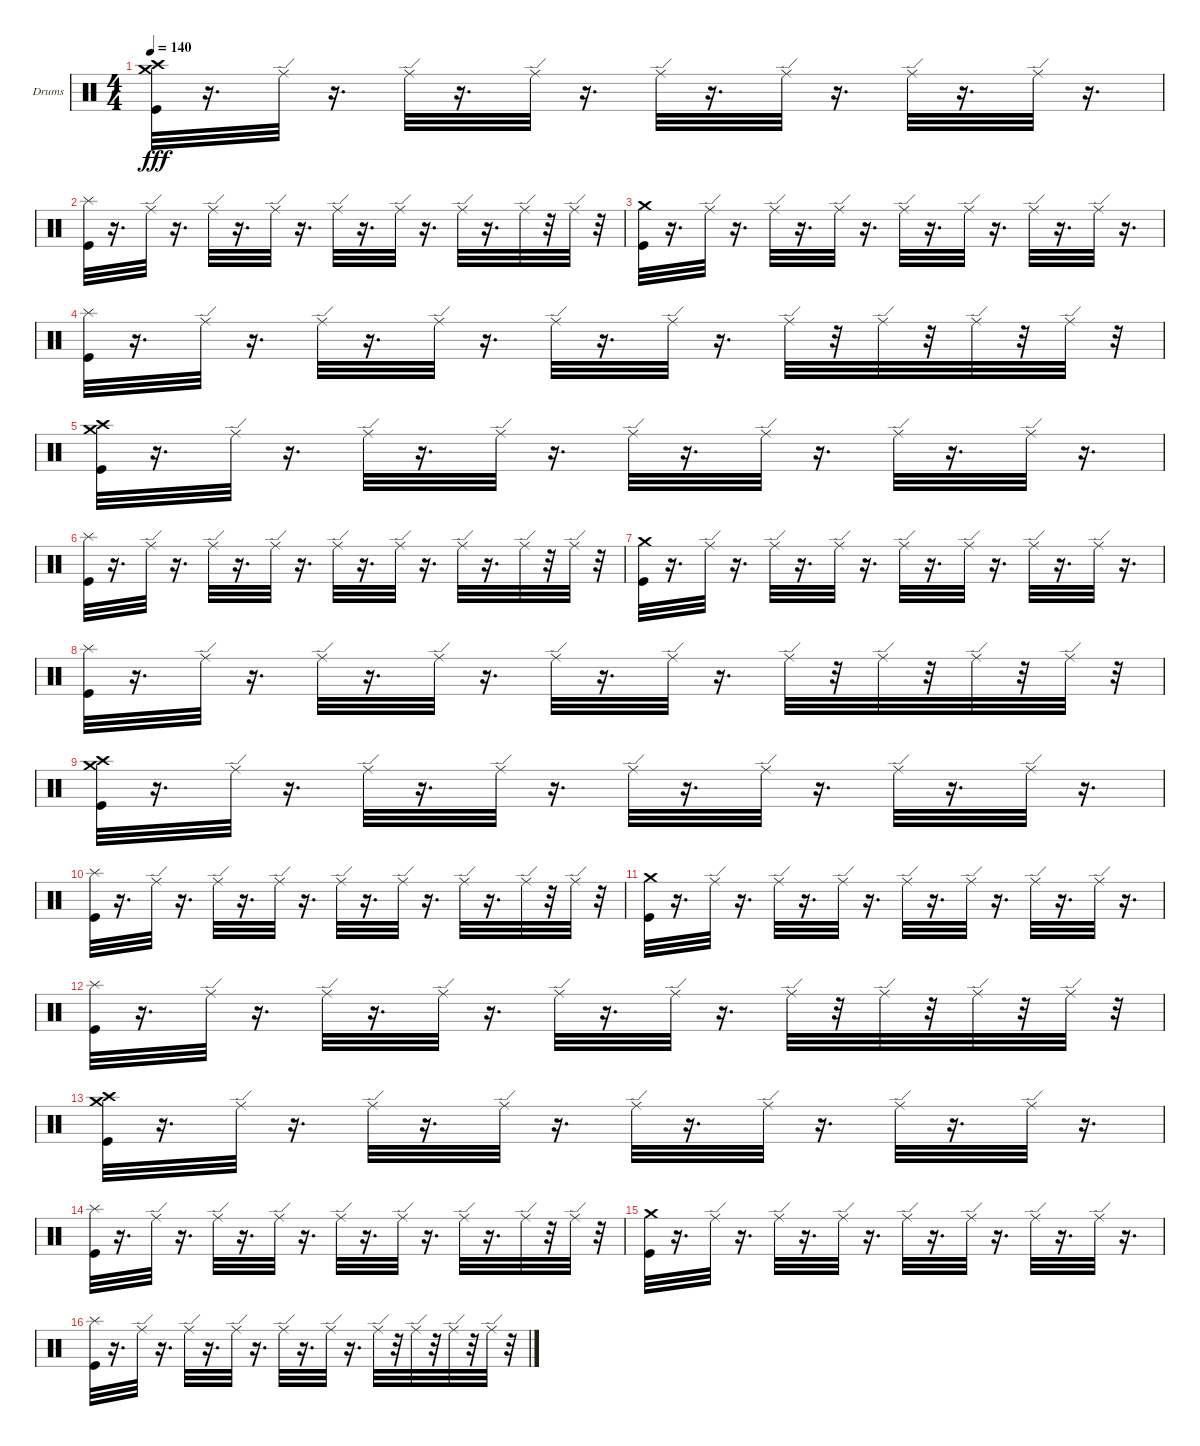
\bracketExtendMode groupsimilarinstruments
\firstSystemTrackNameOrientation horizontal
\otherSystemsTrackNameOrientation horizontal
\track ("Dave McClain" "Drums") {mute instrument percussion}
\staff {score}
\articulation defaults
\ts (4 4)
\tempo 140
\clef neutral
\ks c
("Crash high (hit)" "Crash medium (hit)" "Kick (hit)").32{dy fff} r.16{d} "Ride (edge)".32 r.16{d} "Ride (edge)".32 r.16{d} "Ride (edge)".32 r.16{d} "Ride (edge)".32 r.16{d} "Ride (edge)".32 r.16{d} "Ride (edge)".32 r.16{d} "Ride (edge)".32 r.16{d} |
("Splash (hit)" "Kick (hit)").32 r.16{d} "Ride (edge)".32 r.16{d} "Ride (edge)".32 r.16{d} "Ride (edge)".32 r.16{d} "Ride (edge)".32 r.16{d} "Ride (edge)".32 r.16{d} "Ride (edge)".32 r.16{d} "Ride (edge)".32 r.32 "Ride (edge)".32 r.32 |
("Crash medium (hit)" "Kick (hit)").32 r.16{d} "Ride (edge)".32 r.16{d} "Ride (edge)".32 r.16{d} "Ride (edge)".32 r.16{d} "Ride (edge)".32 r.16{d} "Ride (edge)".32 r.16{d} "Ride (edge)".32 r.16{d} "Ride (edge)".32 r.16{d} |
("Splash (hit)" "Kick (hit)").32 r.16{d} "Ride (edge)".32 r.16{d} "Ride (edge)".32 r.16{d} "Ride (edge)".32 r.16{d} "Ride (edge)".32 r.16{d} "Ride (edge)".32 r.16{d} "Ride (edge)".32 r.32 "Ride (edge)".32 r.32 "Ride (edge)".32 r.32 "Ride (edge)".32 r.32 |
("Crash high (hit)" "Crash medium (hit)" "Kick (hit)").32 r.16{d} "Ride (edge)".32 r.16{d} "Ride (edge)".32 r.16{d} "Ride (edge)".32 r.16{d} "Ride (edge)".32 r.16{d} "Ride (edge)".32 r.16{d} "Ride (edge)".32 r.16{d} "Ride (edge)".32 r.16{d} |
("Splash (hit)" "Kick (hit)").32 r.16{d} "Ride (edge)".32 r.16{d} "Ride (edge)".32 r.16{d} "Ride (edge)".32 r.16{d} "Ride (edge)".32 r.16{d} "Ride (edge)".32 r.16{d} "Ride (edge)".32 r.16{d} "Ride (edge)".32 r.32 "Ride (edge)".32 r.32 |
("Crash medium (hit)" "Kick (hit)").32 r.16{d} "Ride (edge)".32 r.16{d} "Ride (edge)".32 r.16{d} "Ride (edge)".32 r.16{d} "Ride (edge)".32 r.16{d} "Ride (edge)".32 r.16{d} "Ride (edge)".32 r.16{d} "Ride (edge)".32 r.16{d} |
("Splash (hit)" "Kick (hit)").32 r.16{d} "Ride (edge)".32 r.16{d} "Ride (edge)".32 r.16{d} "Ride (edge)".32 r.16{d} "Ride (edge)".32 r.16{d} "Ride (edge)".32 r.16{d} "Ride (edge)".32 r.32 "Ride (edge)".32 r.32 "Ride (edge)".32 r.32 "Ride (edge)".32 r.32 |
("Crash high (hit)" "Crash medium (hit)" "Kick (hit)").32 r.16{d} "Ride (edge)".32 r.16{d} "Ride (edge)".32 r.16{d} "Ride (edge)".32 r.16{d} "Ride (edge)".32 r.16{d} "Ride (edge)".32 r.16{d} "Ride (edge)".32 r.16{d} "Ride (edge)".32 r.16{d} |
("Splash (hit)" "Kick (hit)").32 r.16{d} "Ride (edge)".32 r.16{d} "Ride (edge)".32 r.16{d} "Ride (edge)".32 r.16{d} "Ride (edge)".32 r.16{d} "Ride (edge)".32 r.16{d} "Ride (edge)".32 r.16{d} "Ride (edge)".32 r.32 "Ride (edge)".32 r.32 |
("Crash medium (hit)" "Kick (hit)").32 r.16{d} "Ride (edge)".32 r.16{d} "Ride (edge)".32 r.16{d} "Ride (edge)".32 r.16{d} "Ride (edge)".32 r.16{d} "Ride (edge)".32 r.16{d} "Ride (edge)".32 r.16{d} "Ride (edge)".32 r.16{d} |
("Splash (hit)" "Kick (hit)").32 r.16{d} "Ride (edge)".32 r.16{d} "Ride (edge)".32 r.16{d} "Ride (edge)".32 r.16{d} "Ride (edge)".32 r.16{d} "Ride (edge)".32 r.16{d} "Ride (edge)".32 r.32 "Ride (edge)".32 r.32 "Ride (edge)".32 r.32 "Ride (edge)".32 r.32 |
("Crash high (hit)" "Crash medium (hit)" "Kick (hit)").32 r.16{d} "Ride (edge)".32 r.16{d} "Ride (edge)".32 r.16{d} "Ride (edge)".32 r.16{d} "Ride (edge)".32 r.16{d} "Ride (edge)".32 r.16{d} "Ride (edge)".32 r.16{d} "Ride (edge)".32 r.16{d} |
("Splash (hit)" "Kick (hit)").32 r.16{d} "Ride (edge)".32 r.16{d} "Ride (edge)".32 r.16{d} "Ride (edge)".32 r.16{d} "Ride (edge)".32 r.16{d} "Ride (edge)".32 r.16{d} "Ride (edge)".32 r.16{d} "Ride (edge)".32 r.32 "Ride (edge)".32 r.32 |
("Crash medium (hit)" "Kick (hit)").32 r.16{d} "Ride (edge)".32 r.16{d} "Ride (edge)".32 r.16{d} "Ride (edge)".32 r.16{d} "Ride (edge)".32 r.16{d} "Ride (edge)".32 r.16{d} "Ride (edge)".32 r.16{d} "Ride (edge)".32 r.16{d} |
("Splash (hit)" "Kick (hit)").32 r.16{d} "Ride (edge)".32 r.16{d} "Ride (edge)".32 r.16{d} "Ride (edge)".32 r.16{d} "Ride (edge)".32 r.16{d} "Ride (edge)".32 r.16{d} "Ride (edge)".32 r.32 "Ride (edge)".32 r.32 "Ride (edge)".32 r.32 "Ride (edge)".32 r.32
